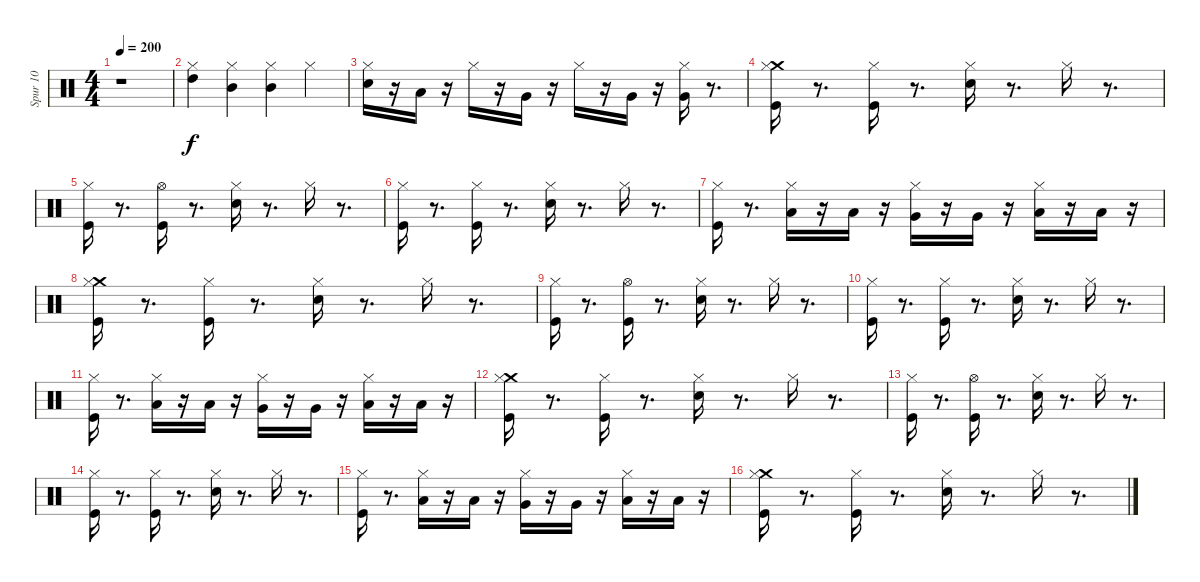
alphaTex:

\track ("Spur 10" "Spur 10") {instrument percussion}
\staff {score}
\articulation defaults
\ts (4 4)
\tempo 200
\clef neutral
\ks c
r.1{dy f} |
("High Tom (hit)" "Hi-Hat (closed)").4 ("Mid Tom (hit)" "Hi-Hat (closed)").4 ("Mid Tom (hit)" "Hi-Hat (closed)").4 "Hi-Hat (closed)".4 |
("Hi-Hat (closed)" "Electric Snare (hit)").16 r.16 "Low Tom (hit)".16 r.16 "Hi-Hat (closed)".16 r.16 "Very Low Tom (hit)".16 r.16 "Hi-Hat (closed)".16 r.16 "Very Low Tom (hit)".16 r.16 ("Very Low Tom (hit)" "Hi-Hat (closed)").16 r.8{d} |
("Kick (hit)" "Crash medium (hit)" "Hi-Hat (closed)").16 r.8{d} ("Kick (hit)" "Hi-Hat (closed)").16 r.8{d} ("Snare (hit) 2" "Hi-Hat (closed)").16 r.8{d} "Hi-Hat (closed)".16 r.8{d} |
("Kick (hit)" "Hi-Hat (closed)").16 r.8{d} ("Kick (hit)" "Hi-Hat (open)").16 r.8{d} ("Snare (hit) 2" "Hi-Hat (closed)").16 r.8{d} "Hi-Hat (closed)".16 r.8{d} |
("Kick (hit)" "Hi-Hat (closed)").16 r.8{d} ("Kick (hit)" "Hi-Hat (closed)").16 r.8{d} ("Snare (hit) 2" "Hi-Hat (closed)").16 r.8{d} "Hi-Hat (closed)".16 r.8{d} |
("Kick (hit)" "Hi-Hat (closed)").16 r.8{d} ("Low Floor Tom (hit)" "Hi-Hat (closed)").16 r.16 "Low Floor Tom (hit)".16 r.16 ("Very Low Tom (hit)" "Hi-Hat (closed)").16 r.16 "Very Low Tom (hit)".16 r.16 ("Low Tom (hit)" "Hi-Hat (closed)").16 r.16 "Low Tom (hit)".16 r.16 |
("Kick (hit)" "Crash medium (hit)" "Hi-Hat (closed)").16 r.8{d} ("Kick (hit)" "Hi-Hat (closed)").16 r.8{d} ("Snare (hit) 2" "Hi-Hat (closed)").16 r.8{d} "Hi-Hat (closed)".16 r.8{d} |
("Kick (hit)" "Hi-Hat (closed)").16 r.8{d} ("Kick (hit)" "Hi-Hat (open)").16 r.8{d} ("Snare (hit) 2" "Hi-Hat (closed)").16 r.8{d} "Hi-Hat (closed)".16 r.8{d} |
("Kick (hit)" "Hi-Hat (closed)").16 r.8{d} ("Kick (hit)" "Hi-Hat (closed)").16 r.8{d} ("Snare (hit) 2" "Hi-Hat (closed)").16 r.8{d} "Hi-Hat (closed)".16 r.8{d} |
("Kick (hit)" "Hi-Hat (closed)").16 r.8{d} ("Low Floor Tom (hit)" "Hi-Hat (closed)").16 r.16 "Low Floor Tom (hit)".16 r.16 ("Very Low Tom (hit)" "Hi-Hat (closed)").16 r.16 "Very Low Tom (hit)".16 r.16 ("Low Tom (hit)" "Hi-Hat (closed)").16 r.16 "Low Tom (hit)".16 r.16 |
("Kick (hit)" "Crash medium (hit)" "Hi-Hat (closed)").16 r.8{d} ("Kick (hit)" "Hi-Hat (closed)").16 r.8{d} ("Snare (hit) 2" "Hi-Hat (closed)").16 r.8{d} "Hi-Hat (closed)".16 r.8{d} |
("Kick (hit)" "Hi-Hat (closed)").16 r.8{d} ("Kick (hit)" "Hi-Hat (open)").16 r.8{d} ("Snare (hit) 2" "Hi-Hat (closed)").16 r.8{d} "Hi-Hat (closed)".16 r.8{d} |
("Kick (hit)" "Hi-Hat (closed)").16 r.8{d} ("Kick (hit)" "Hi-Hat (closed)").16 r.8{d} ("Snare (hit) 2" "Hi-Hat (closed)").16 r.8{d} "Hi-Hat (closed)".16 r.8{d} |
("Kick (hit)" "Hi-Hat (closed)").16 r.8{d} ("Low Floor Tom (hit)" "Hi-Hat (closed)").16 r.16 "Low Floor Tom (hit)".16 r.16 ("Very Low Tom (hit)" "Hi-Hat (closed)").16 r.16 "Very Low Tom (hit)".16 r.16 ("Low Tom (hit)" "Hi-Hat (closed)").16 r.16 "Low Tom (hit)".16 r.16 |
("Kick (hit)" "Crash medium (hit)" "Hi-Hat (closed)").16 r.8{d} ("Kick (hit)" "Hi-Hat (closed)").16 r.8{d} ("Snare (hit) 2" "Hi-Hat (closed)").16 r.8{d} "Hi-Hat (closed)".16 r.8{d}
